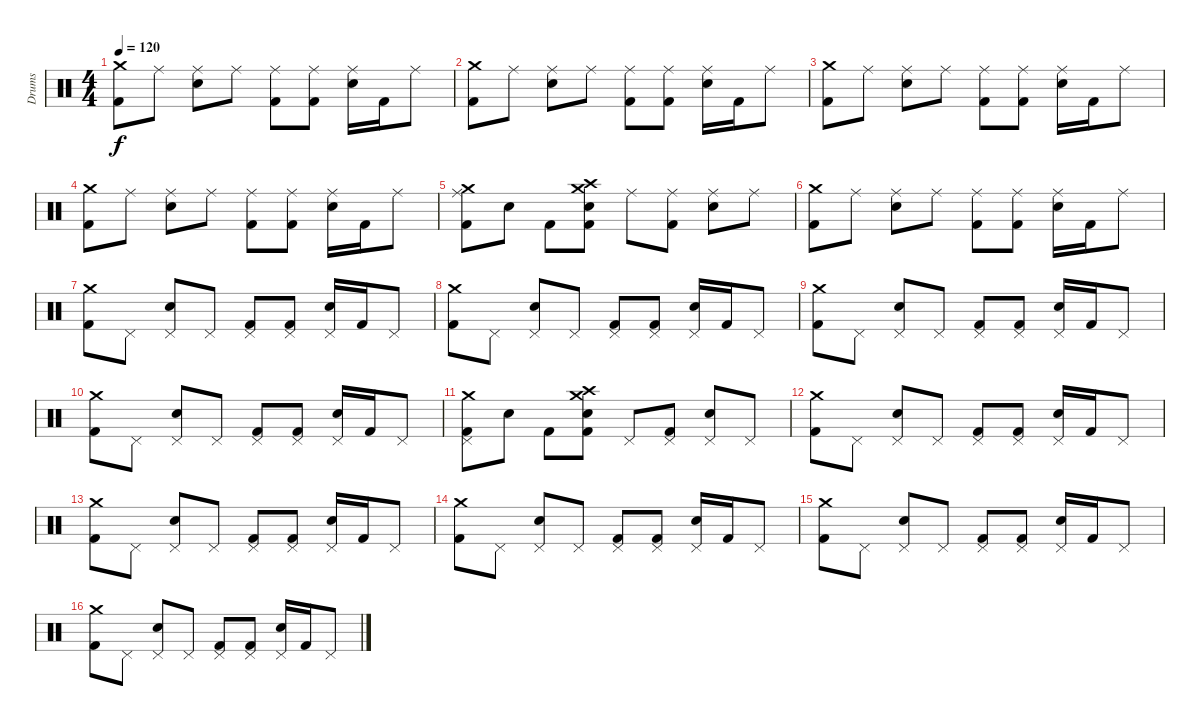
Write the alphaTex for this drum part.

\track ("Drums" "Drums") {instrument percussion}
\staff {score}
\articulation defaults
\ts (4 4)
\tempo 120
\clef neutral
\ks c
("Crash medium (hit)" "Kick (hit) 2").8{dy f} "Ride (middle)".8 ("Ride (middle)" "Snare (hit) 2").8 "Ride (middle)".8 ("Kick (hit) 2" "Ride (middle)").8 ("Ride (middle)" "Kick (hit) 2").8 ("Ride (middle)" "Snare (hit) 2").16 "Kick (hit) 2".16 "Ride (middle)".8 |
("Crash medium (hit)" "Kick (hit) 2").8 "Ride (middle)".8 ("Ride (middle)" "Snare (hit) 2").8 "Ride (middle)".8 ("Ride (middle)" "Kick (hit) 2").8 ("Ride (middle)" "Kick (hit) 2").8 ("Ride (middle)" "Snare (hit) 2").16 "Kick (hit) 2".16 "Ride (middle)".8 |
("Crash medium (hit)" "Kick (hit) 2").8 "Ride (middle)".8 ("Ride (middle)" "Snare (hit) 2").8 "Ride (middle)".8 ("Ride (middle)" "Kick (hit) 2").8 ("Ride (middle)" "Kick (hit) 2").8 ("Ride (middle)" "Snare (hit) 2").16 "Kick (hit) 2".16 "Ride (middle)".8 |
("Crash medium (hit)" "Kick (hit) 2").8 "Ride (middle)".8 ("Ride (middle)" "Snare (hit) 2").8 "Ride (middle)".8 ("Ride (middle)" "Kick (hit) 2").8 ("Ride (middle)" "Kick (hit) 2").8 ("Ride (middle)" "Snare (hit) 2").16 "Kick (hit) 2".16 "Ride (middle)".8 |
("Crash medium (hit)" "Ride (middle)" "Kick (hit) 2").8 "Snare (hit) 2".8 "Kick (hit) 2".8 ("Crash high (hit)" "Crash medium (hit)" "Kick (hit) 2" "Snare (hit) 2").8 "Ride (middle)".8 ("Ride (middle)" "Kick (hit) 2").8 ("Ride (middle)" "Snare (hit) 2").8 "Ride (middle)".8 |
("Crash medium (hit)" "Kick (hit) 2").8 "Ride (middle)".8 ("Ride (middle)" "Snare (hit) 2").8 "Ride (middle)".8 ("Ride (middle)" "Kick (hit) 2").8 ("Ride (middle)" "Kick (hit) 2").8 ("Ride (middle)" "Snare (hit) 2").16 "Kick (hit) 2".16 "Ride (middle)".8 |
("Crash medium (hit)" "Kick (hit) 2").8 "Pedal Hi-Hat (hit)".8 ("Pedal Hi-Hat (hit)" "Snare (hit) 2").8 "Pedal Hi-Hat (hit)".8 ("Pedal Hi-Hat (hit)" "Kick (hit) 2").8 ("Pedal Hi-Hat (hit)" "Kick (hit) 2").8 ("Pedal Hi-Hat (hit)" "Snare (hit) 2").16 "Kick (hit) 2".16 "Pedal Hi-Hat (hit)".8 |
("Kick (hit) 2" "Crash medium (hit)").8 "Pedal Hi-Hat (hit)".8 ("Pedal Hi-Hat (hit)" "Snare (hit) 2").8 "Pedal Hi-Hat (hit)".8 ("Pedal Hi-Hat (hit)" "Kick (hit) 2").8 ("Pedal Hi-Hat (hit)" "Kick (hit) 2").8 ("Pedal Hi-Hat (hit)" "Snare (hit) 2").16 "Kick (hit) 2".16 "Pedal Hi-Hat (hit)".8 |
("Crash medium (hit)" "Kick (hit) 2").8 "Pedal Hi-Hat (hit)".8 ("Pedal Hi-Hat (hit)" "Snare (hit) 2").8 "Pedal Hi-Hat (hit)".8 ("Pedal Hi-Hat (hit)" "Kick (hit) 2").8 ("Pedal Hi-Hat (hit)" "Kick (hit) 2").8 ("Pedal Hi-Hat (hit)" "Snare (hit) 2").16 "Kick (hit) 2".16 "Pedal Hi-Hat (hit)".8 |
("Crash medium (hit)" "Kick (hit) 2").8 "Pedal Hi-Hat (hit)".8 ("Pedal Hi-Hat (hit)" "Snare (hit) 2").8 "Pedal Hi-Hat (hit)".8 ("Pedal Hi-Hat (hit)" "Kick (hit) 2").8 ("Pedal Hi-Hat (hit)" "Kick (hit) 2").8 ("Pedal Hi-Hat (hit)" "Snare (hit) 2").16 "Kick (hit) 2".16 "Pedal Hi-Hat (hit)".8 |
("Crash medium (hit)" "Kick (hit) 2" "Pedal Hi-Hat (hit)").8 "Snare (hit) 2".8 "Kick (hit) 2".8 ("Crash high (hit)" "Crash medium (hit)" "Kick (hit) 2" "Snare (hit) 2").8 "Pedal Hi-Hat (hit)".8 ("Pedal Hi-Hat (hit)" "Kick (hit) 2").8 ("Pedal Hi-Hat (hit)" "Snare (hit) 2").8 "Pedal Hi-Hat (hit)".8 |
("Crash medium (hit)" "Kick (hit) 2").8 "Pedal Hi-Hat (hit)".8 ("Pedal Hi-Hat (hit)" "Snare (hit) 2").8 "Pedal Hi-Hat (hit)".8 ("Pedal Hi-Hat (hit)" "Kick (hit) 2").8 ("Pedal Hi-Hat (hit)" "Kick (hit) 2").8 ("Pedal Hi-Hat (hit)" "Snare (hit) 2").16 "Kick (hit) 2".16 "Pedal Hi-Hat (hit)".8 |
("Kick (hit) 2" "Crash medium (hit)").8 "Pedal Hi-Hat (hit)".8 ("Pedal Hi-Hat (hit)" "Snare (hit) 2").8 "Pedal Hi-Hat (hit)".8 ("Pedal Hi-Hat (hit)" "Kick (hit) 2").8 ("Pedal Hi-Hat (hit)" "Kick (hit) 2").8 ("Pedal Hi-Hat (hit)" "Snare (hit) 2").16 "Kick (hit) 2".16 "Pedal Hi-Hat (hit)".8 |
("Kick (hit) 2" "Crash medium (hit)").8 "Pedal Hi-Hat (hit)".8 ("Pedal Hi-Hat (hit)" "Snare (hit) 2").8 "Pedal Hi-Hat (hit)".8 ("Pedal Hi-Hat (hit)" "Kick (hit) 2").8 ("Pedal Hi-Hat (hit)" "Kick (hit) 2").8 ("Pedal Hi-Hat (hit)" "Snare (hit) 2").16 "Kick (hit) 2".16 "Pedal Hi-Hat (hit)".8 |
("Kick (hit) 2" "Crash medium (hit)").8 "Pedal Hi-Hat (hit)".8 ("Pedal Hi-Hat (hit)" "Snare (hit) 2").8 "Pedal Hi-Hat (hit)".8 ("Pedal Hi-Hat (hit)" "Kick (hit) 2").8 ("Pedal Hi-Hat (hit)" "Kick (hit) 2").8 ("Pedal Hi-Hat (hit)" "Snare (hit) 2").16 "Kick (hit) 2".16 "Pedal Hi-Hat (hit)".8 |
("Kick (hit) 2" "Crash medium (hit)").8 "Pedal Hi-Hat (hit)".8 ("Pedal Hi-Hat (hit)" "Snare (hit) 2").8 "Pedal Hi-Hat (hit)".8 ("Pedal Hi-Hat (hit)" "Kick (hit) 2").8 ("Pedal Hi-Hat (hit)" "Kick (hit) 2").8 ("Pedal Hi-Hat (hit)" "Snare (hit) 2").16 "Kick (hit) 2".16 "Pedal Hi-Hat (hit)".8
